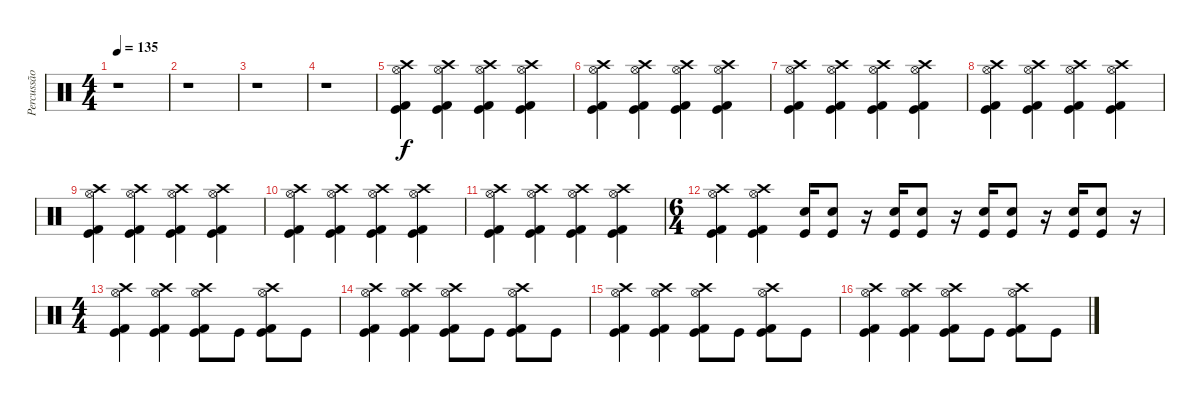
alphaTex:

\track ("Percussão" "Percussão") {instrument percussion}
\staff {score}
\articulation defaults
\ts (4 4)
\tempo 135
\clef neutral
\ks c
r.1{dy f} |
r.1 |
r.1 |
r.1 |
\section ("" "")
("Kick (hit)" "Hi-Hat (open)" "Kick (hit) 2" "Crash high (hit)").4 ("Kick (hit)" "Hi-Hat (open)" "Kick (hit) 2" "Crash high (hit)").4 ("Kick (hit)" "Hi-Hat (open)" "Kick (hit) 2" "Crash high (hit)").4 ("Kick (hit)" "Hi-Hat (open)" "Kick (hit) 2" "Crash high (hit)").4 |
("Kick (hit)" "Hi-Hat (open)" "Kick (hit) 2" "Crash high (hit)").4 ("Kick (hit)" "Hi-Hat (open)" "Kick (hit) 2" "Crash high (hit)").4 ("Kick (hit)" "Hi-Hat (open)" "Kick (hit) 2" "Crash high (hit)").4 ("Kick (hit)" "Hi-Hat (open)" "Kick (hit) 2" "Crash high (hit)").4 |
("Kick (hit)" "Hi-Hat (open)" "Kick (hit) 2" "Crash high (hit)").4 ("Kick (hit)" "Hi-Hat (open)" "Kick (hit) 2" "Crash high (hit)").4 ("Kick (hit)" "Hi-Hat (open)" "Kick (hit) 2" "Crash high (hit)").4 ("Kick (hit)" "Hi-Hat (open)" "Kick (hit) 2" "Crash high (hit)").4 |
("Kick (hit)" "Hi-Hat (open)" "Kick (hit) 2" "Crash high (hit)").4 ("Kick (hit)" "Hi-Hat (open)" "Kick (hit) 2" "Crash high (hit)").4 ("Kick (hit)" "Hi-Hat (open)" "Kick (hit) 2" "Crash high (hit)").4 ("Kick (hit)" "Hi-Hat (open)" "Kick (hit) 2" "Crash high (hit)").4 |
("Kick (hit)" "Hi-Hat (open)" "Kick (hit) 2" "Crash high (hit)").4 ("Kick (hit)" "Hi-Hat (open)" "Kick (hit) 2" "Crash high (hit)").4 ("Kick (hit)" "Hi-Hat (open)" "Kick (hit) 2" "Crash high (hit)").4 ("Kick (hit)" "Hi-Hat (open)" "Kick (hit) 2" "Crash high (hit)").4 |
("Kick (hit)" "Hi-Hat (open)" "Kick (hit) 2" "Crash high (hit)").4 ("Kick (hit)" "Hi-Hat (open)" "Kick (hit) 2" "Crash high (hit)").4 ("Kick (hit)" "Hi-Hat (open)" "Kick (hit) 2" "Crash high (hit)").4 ("Kick (hit)" "Hi-Hat (open)" "Kick (hit) 2" "Crash high (hit)").4 |
("Kick (hit)" "Hi-Hat (open)" "Kick (hit) 2" "Crash high (hit)").4 ("Kick (hit)" "Hi-Hat (open)" "Kick (hit) 2" "Crash high (hit)").4 ("Kick (hit)" "Hi-Hat (open)" "Kick (hit) 2" "Crash high (hit)").4 ("Kick (hit)" "Hi-Hat (open)" "Kick (hit) 2" "Crash high (hit)").4 |
\ts (6 4)
("Kick (hit)" "Hi-Hat (open)" "Kick (hit) 2" "Crash high (hit)").4 ("Kick (hit)" "Hi-Hat (open)" "Kick (hit) 2" "Crash high (hit)").4 ("Kick (hit)" "Electric Snare (hit)").16 ("Kick (hit)" "Electric Snare (hit)").8 r.16 ("Kick (hit)" "Electric Snare (hit)").16 ("Kick (hit)" "Electric Snare (hit)").8 r.16 ("Kick (hit)" "Electric Snare (hit)").16 ("Kick (hit)" "Electric Snare (hit)").8 r.16 ("Kick (hit)" "Electric Snare (hit)").16 ("Kick (hit)" "Electric Snare (hit)").8 r.16 |
\ts (4 4)
("Kick (hit)" "Hi-Hat (open)" "Kick (hit) 2" "Crash high (hit)").4 ("Kick (hit)" "Hi-Hat (open)" "Kick (hit) 2" "Crash high (hit)").4 ("Kick (hit)" "Hi-Hat (open)" "Kick (hit) 2" "Crash high (hit)").8 "Kick (hit)".8 ("Kick (hit)" "Hi-Hat (open)" "Kick (hit) 2" "Crash high (hit)").8 "Kick (hit)".8 |
("Kick (hit)" "Hi-Hat (open)" "Kick (hit) 2" "Crash high (hit)").4 ("Kick (hit)" "Hi-Hat (open)" "Kick (hit) 2" "Crash high (hit)").4 ("Kick (hit)" "Hi-Hat (open)" "Kick (hit) 2" "Crash high (hit)").8 "Kick (hit)".8 ("Kick (hit)" "Hi-Hat (open)" "Kick (hit) 2" "Crash high (hit)").8 "Kick (hit)".8 |
("Kick (hit)" "Hi-Hat (open)" "Kick (hit) 2" "Crash high (hit)").4 ("Kick (hit)" "Hi-Hat (open)" "Kick (hit) 2" "Crash high (hit)").4 ("Kick (hit)" "Hi-Hat (open)" "Kick (hit) 2" "Crash high (hit)").8 "Kick (hit)".8 ("Kick (hit)" "Hi-Hat (open)" "Kick (hit) 2" "Crash high (hit)").8 "Kick (hit)".8 |
("Kick (hit)" "Hi-Hat (open)" "Kick (hit) 2" "Crash high (hit)").4 ("Kick (hit)" "Hi-Hat (open)" "Kick (hit) 2" "Crash high (hit)").4 ("Kick (hit)" "Hi-Hat (open)" "Kick (hit) 2" "Crash high (hit)").8 "Kick (hit)".8 ("Kick (hit)" "Hi-Hat (open)" "Kick (hit) 2" "Crash high (hit)").8 "Kick (hit)".8
